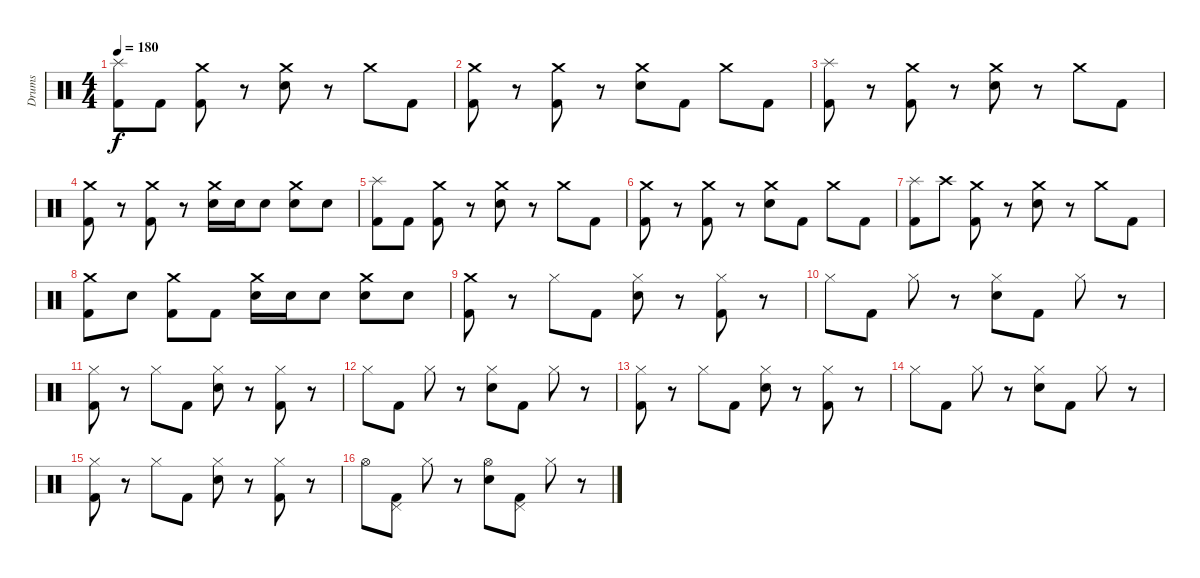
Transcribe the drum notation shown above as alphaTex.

\track ("Drums" "Drums") {instrument percussion}
\staff {score}
\articulation defaults
\ts (4 4)
\tempo 180
\clef neutral
\ks c
("Splash (hit)" "Kick (hit) 2").8{dy f} "Kick (hit) 2".8 ("Crash medium (hit)" "Kick (hit) 2").8 r.8 ("Crash medium (hit)" "Snare (hit) 2").8 r.8 "Crash medium (hit)".8 "Kick (hit) 2".8 |
("Crash medium (hit)" "Kick (hit) 2").8 r.8 ("Crash medium (hit)" "Kick (hit) 2").8 r.8 ("Crash medium (hit)" "Snare (hit) 2").8 "Kick (hit) 2".8 "Crash medium (hit)".8 "Kick (hit) 2".8 |
("Splash (hit)" "Kick (hit) 2").8 r.8 ("Crash medium (hit)" "Kick (hit) 2").8 r.8 ("Crash medium (hit)" "Snare (hit) 2").8 r.8 "Crash medium (hit)".8 "Kick (hit) 2".8 |
("Crash medium (hit)" "Kick (hit) 2").8 r.8 ("Crash medium (hit)" "Kick (hit) 2").8 r.8 ("Crash medium (hit)" "Snare (hit) 2").16 "Snare (hit) 2".16 "Snare (hit) 2".8 ("Crash medium (hit)" "Snare (hit) 2").8 "Snare (hit) 2".8 |
("Splash (hit)" "Kick (hit) 2").8 "Kick (hit) 2".8 ("Crash medium (hit)" "Kick (hit) 2").8 r.8 ("Crash medium (hit)" "Snare (hit) 2").8 r.8 "Crash medium (hit)".8 "Kick (hit) 2".8 |
("Crash medium (hit)" "Kick (hit) 2").8 r.8 ("Crash medium (hit)" "Kick (hit) 2").8 r.8 ("Crash medium (hit)" "Snare (hit) 2").8 "Kick (hit) 2".8 "Crash medium (hit)".8 "Kick (hit) 2".8 |
("Splash (hit)" "Kick (hit) 2").8 "Crash high (hit)".8 ("Crash medium (hit)" "Kick (hit) 2").8 r.8 ("Crash medium (hit)" "Snare (hit) 2").8 r.8 "Crash medium (hit)".8 "Kick (hit) 2".8 |
("Crash medium (hit)" "Kick (hit) 2").8 "Snare (hit) 2".8 ("Crash medium (hit)" "Kick (hit) 2").8 "Kick (hit) 2".8 ("Crash medium (hit)" "Snare (hit) 2").16 "Snare (hit) 2".16 "Snare (hit) 2".8 ("Crash medium (hit)" "Snare (hit) 2").8 "Snare (hit) 2".8 |
("Crash medium (hit)" "Kick (hit) 2").8 r.8 "Hi-Hat (closed)".8 "Kick (hit) 2".8 ("Hi-Hat (closed)" "Snare (hit) 2").8 r.8 ("Hi-Hat (closed)" "Kick (hit) 2").8 r.8 |
"Hi-Hat (closed)".8 "Kick (hit) 2".8 "Hi-Hat (closed)".8 r.8 ("Hi-Hat (closed)" "Snare (hit) 2").8 "Kick (hit) 2".8 "Hi-Hat (closed)".8 r.8 |
("Hi-Hat (closed)" "Kick (hit) 2").8 r.8 "Hi-Hat (closed)".8 "Kick (hit) 2".8 ("Hi-Hat (closed)" "Snare (hit) 2").8 r.8 ("Hi-Hat (closed)" "Kick (hit) 2").8 r.8 |
"Hi-Hat (closed)".8 "Kick (hit) 2".8 "Hi-Hat (closed)".8 r.8 ("Hi-Hat (closed)" "Snare (hit) 2").8 "Kick (hit) 2".8 "Hi-Hat (closed)".8 r.8 |
("Hi-Hat (closed)" "Kick (hit) 2").8 r.8 "Hi-Hat (closed)".8 "Kick (hit) 2".8 ("Hi-Hat (closed)" "Snare (hit) 2").8 r.8 ("Hi-Hat (closed)" "Kick (hit) 2").8 r.8 |
"Hi-Hat (closed)".8 "Kick (hit) 2".8 "Hi-Hat (closed)".8 r.8 ("Hi-Hat (closed)" "Snare (hit) 2").8 "Kick (hit) 2".8 "Hi-Hat (closed)".8 r.8 |
("Hi-Hat (closed)" "Kick (hit) 2").8 r.8 "Hi-Hat (closed)".8 "Kick (hit) 2".8 ("Hi-Hat (closed)" "Snare (hit) 2").8 r.8 ("Hi-Hat (closed)" "Kick (hit) 2").8 r.8 |
"Hi-Hat (open)".8 ("Pedal Hi-Hat (hit)" "Kick (hit) 2").8 "Hi-Hat (closed)".8 r.8 ("Hi-Hat (open)" "Snare (hit) 2").8 ("Pedal Hi-Hat (hit)" "Kick (hit) 2").8 "Hi-Hat (closed)".8 r.8
